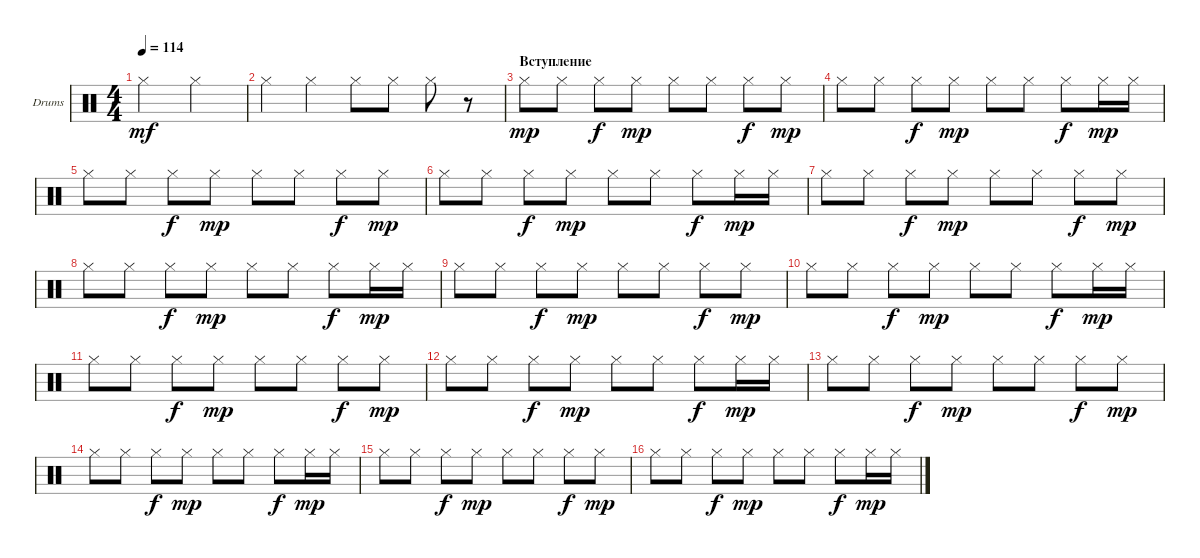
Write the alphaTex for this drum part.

\defaultSystemsLayout 4
\bracketExtendMode groupsimilarinstruments
\firstSystemTrackNameOrientation horizontal
\otherSystemsTrackNameOrientation horizontal
\track ("Е. Кулаков" "Drums") {instrument percussion}
\staff {score}
\articulation defaults
\ts (4 4)
\tempo 114
\clef neutral
\ks c "Hi-Hat (closed)".2{dy mf} "Hi-Hat (closed)".2
|
"Hi-Hat (closed)".4 "Hi-Hat (closed)".4 "Hi-Hat (closed)".8 "Hi-Hat (closed)".8 "Hi-Hat (closed)".8 r.8 |
\section ("" "Вступление")
"Hi-Hat (closed)".8{dy mp} "Hi-Hat (closed)".8 "Hi-Hat (closed)".8{dy f} "Hi-Hat (closed)".8{dy mp} "Hi-Hat (closed)".8 "Hi-Hat (closed)".8 "Hi-Hat (closed)".8{dy f} "Hi-Hat (closed)".8{dy mp} |
"Hi-Hat (closed)".8 "Hi-Hat (closed)".8 "Hi-Hat (closed)".8{dy f} "Hi-Hat (closed)".8{dy mp} "Hi-Hat (closed)".8 "Hi-Hat (closed)".8 "Hi-Hat (closed)".8{dy f} "Hi-Hat (closed)".16{dy mp} "Hi-Hat (closed)".16 |
"Hi-Hat (closed)".8 "Hi-Hat (closed)".8 "Hi-Hat (closed)".8{dy f} "Hi-Hat (closed)".8{dy mp} "Hi-Hat (closed)".8 "Hi-Hat (closed)".8 "Hi-Hat (closed)".8{dy f} "Hi-Hat (closed)".8{dy mp} |
"Hi-Hat (closed)".8 "Hi-Hat (closed)".8 "Hi-Hat (closed)".8{dy f} "Hi-Hat (closed)".8{dy mp} "Hi-Hat (closed)".8 "Hi-Hat (closed)".8 "Hi-Hat (closed)".8{dy f} "Hi-Hat (closed)".16{dy mp} "Hi-Hat (closed)".16 |
"Hi-Hat (closed)".8 "Hi-Hat (closed)".8 "Hi-Hat (closed)".8{dy f} "Hi-Hat (closed)".8{dy mp} "Hi-Hat (closed)".8 "Hi-Hat (closed)".8 "Hi-Hat (closed)".8{dy f} "Hi-Hat (closed)".8{dy mp} |
"Hi-Hat (closed)".8 "Hi-Hat (closed)".8 "Hi-Hat (closed)".8{dy f} "Hi-Hat (closed)".8{dy mp} "Hi-Hat (closed)".8 "Hi-Hat (closed)".8 "Hi-Hat (closed)".8{dy f} "Hi-Hat (closed)".16{dy mp} "Hi-Hat (closed)".16 |
"Hi-Hat (closed)".8 "Hi-Hat (closed)".8 "Hi-Hat (closed)".8{dy f} "Hi-Hat (closed)".8{dy mp} "Hi-Hat (closed)".8 "Hi-Hat (closed)".8 "Hi-Hat (closed)".8{dy f} "Hi-Hat (closed)".8{dy mp} |
"Hi-Hat (closed)".8 "Hi-Hat (closed)".8 "Hi-Hat (closed)".8{dy f} "Hi-Hat (closed)".8{dy mp} "Hi-Hat (closed)".8 "Hi-Hat (closed)".8 "Hi-Hat (closed)".8{dy f} "Hi-Hat (closed)".16{dy mp} "Hi-Hat (closed)".16 |
"Hi-Hat (closed)".8 "Hi-Hat (closed)".8 "Hi-Hat (closed)".8{dy f} "Hi-Hat (closed)".8{dy mp} "Hi-Hat (closed)".8 "Hi-Hat (closed)".8 "Hi-Hat (closed)".8{dy f} "Hi-Hat (closed)".8{dy mp} |
"Hi-Hat (closed)".8 "Hi-Hat (closed)".8 "Hi-Hat (closed)".8{dy f} "Hi-Hat (closed)".8{dy mp} "Hi-Hat (closed)".8 "Hi-Hat (closed)".8 "Hi-Hat (closed)".8{dy f} "Hi-Hat (closed)".16{dy mp} "Hi-Hat (closed)".16 |
"Hi-Hat (closed)".8 "Hi-Hat (closed)".8 "Hi-Hat (closed)".8{dy f} "Hi-Hat (closed)".8{dy mp} "Hi-Hat (closed)".8 "Hi-Hat (closed)".8 "Hi-Hat (closed)".8{dy f} "Hi-Hat (closed)".8{dy mp} |
"Hi-Hat (closed)".8 "Hi-Hat (closed)".8 "Hi-Hat (closed)".8{dy f} "Hi-Hat (closed)".8{dy mp} "Hi-Hat (closed)".8 "Hi-Hat (closed)".8 "Hi-Hat (closed)".8{dy f} "Hi-Hat (closed)".16{dy mp} "Hi-Hat (closed)".16 |
"Hi-Hat (closed)".8 "Hi-Hat (closed)".8 "Hi-Hat (closed)".8{dy f} "Hi-Hat (closed)".8{dy mp} "Hi-Hat (closed)".8 "Hi-Hat (closed)".8 "Hi-Hat (closed)".8{dy f} "Hi-Hat (closed)".8{dy mp} |
"Hi-Hat (closed)".8 "Hi-Hat (closed)".8 "Hi-Hat (closed)".8{dy f} "Hi-Hat (closed)".8{dy mp} "Hi-Hat (closed)".8 "Hi-Hat (closed)".8 "Hi-Hat (closed)".8{dy f} "Hi-Hat (closed)".16{dy mp} "Hi-Hat (closed)".16
